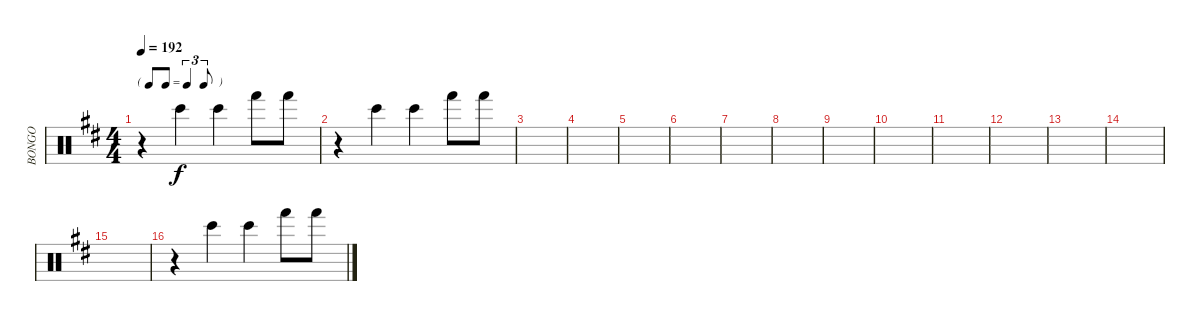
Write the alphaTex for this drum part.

\track ("BONGO" "BONGO") {instrument percussion}
\staff {score}
\articulation defaults
\ts (4 4)
\tf triplet8th
\tempo 192
\clef neutral
\ks d
r.4{dy f} "Bongo High (hit)".4 "Bongo High (hit)".4 "Hand (hit)".8 "Hand (hit)".8 |
r.4 "Bongo High (hit)".4 "Bongo High (hit)".4 "Hand (hit)".8 "Hand (hit)".8 |
|
|
|
|
|
|
|
|
|
|
|
|
|
r.4 "Bongo High (hit)".4 "Bongo High (hit)".4 "Hand (hit)".8 "Hand (hit)".8
